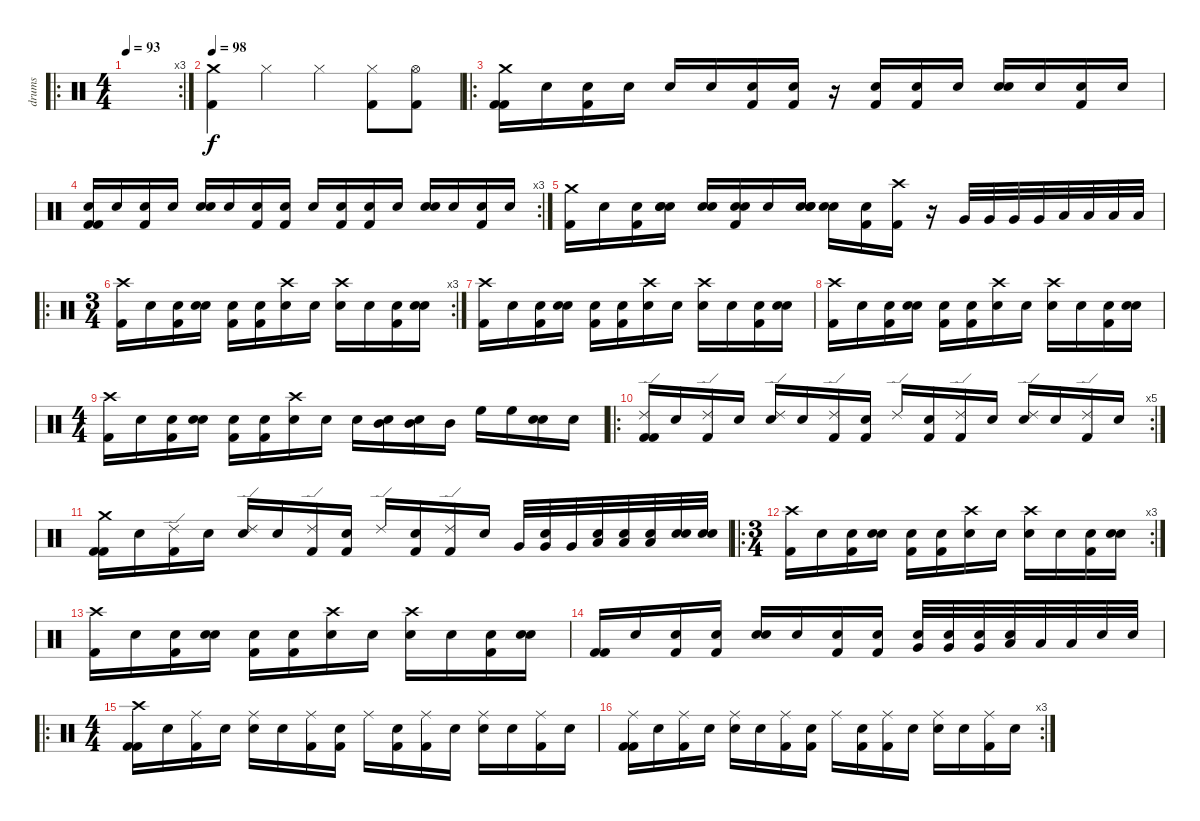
\track ("drums" "drums") {instrument percussion}
\staff {score}
\articulation defaults
\ro
\rc 3
\ts (4 4)
\tempo 93
\clef neutral
\ks c
|
\tempo 93
\tempo 98
("Crash medium (hit)" "Kick (hit) 2").4 "Hi-Hat (closed)".4 "Hi-Hat (closed)".4 ("Hi-Hat (closed)" "Kick (hit) 2").8 ("Hi-Hat (open)" "Kick (hit) 2").8 |
\ro
("Crash medium (hit)" "Kick (hit) 2" "Kick (hit) 2").16 "Snare (hit)".16 ("Snare (hit)" "Kick (hit) 2").16 "Snare (hit)".16 "Snare (hit) 2".16 "Snare (hit)".16 ("Snare (hit)" "Kick (hit) 2").16 ("Snare (hit)" "Kick (hit) 2").16 r.16 ("Snare (hit)" "Kick (hit) 2").16 ("Snare (hit)" "Kick (hit) 2").16 "Snare (hit)".16 ("Snare (hit)" "Snare (hit) 2").16 "Snare (hit)".16 ("Snare (hit)" "Kick (hit) 2").16 "Snare (hit)".16 |
\rc 3
("Snare (hit)" "Kick (hit) 2" "Kick (hit) 2").16 "Snare (hit)".16 ("Snare (hit)" "Kick (hit) 2").16 "Snare (hit)".16 ("Snare (hit)" "Snare (hit) 2").16 "Snare (hit)".16 ("Snare (hit)" "Kick (hit) 2").16 ("Snare (hit)" "Kick (hit) 2").16 "Snare (hit)".16 ("Snare (hit)" "Kick (hit) 2").16 ("Snare (hit)" "Kick (hit) 2").16 "Snare (hit)".16 ("Snare (hit)" "Snare (hit) 2").16 "Snare (hit)".16 ("Snare (hit)" "Kick (hit) 2").16 "Snare (hit)".16 |
("Crash medium (hit)" "Kick (hit) 2").16 "Snare (hit)".16 ("Snare (hit)" "Kick (hit) 2").16 ("Snare (hit)" "Snare (hit)" "Snare (hit)").16 ("Snare (hit)" "Snare (hit) 2").16 ("Snare (hit)" "Snare (hit)" "Kick (hit) 2").16 "Snare (hit)".16 ("Snare (hit)" "Snare (hit)" "Snare (hit)").16 ("Snare (hit)" "Snare (hit)").16 ("Snare (hit) 2" "Kick (hit) 2").16 ("Crash high (hit)" "Kick (hit) 2").16 r.16 "Very Low Tom (hit)".32 "Very Low Tom (hit)".32 "Very Low Tom (hit)".32 "Very Low Tom (hit)".32 "Low Floor Tom (hit)".32 "Low Floor Tom (hit)".32 "Low Floor Tom (hit)".32 "Low Floor Tom (hit)".32 |
\ro
\rc 3
\ts (3 4)
("Crash high (hit)" "Kick (hit) 2").16 "Snare (hit)".16 ("Snare (hit)" "Kick (hit) 2").16 ("Snare (hit)" "Snare (hit) 2").16 ("Snare (hit)" "Kick (hit) 2").16 ("Snare (hit)" "Kick (hit) 2").16 ("Crash high (hit)" "Snare (hit) 2").16 "Snare (hit)".16 ("Crash high (hit)" "Snare (hit) 2").16 "Snare (hit)".16 ("Snare (hit)" "Kick (hit) 2").16 ("Snare (hit)" "Snare (hit) 2").16 |
("Crash high (hit)" "Kick (hit) 2").16 "Snare (hit)".16 ("Snare (hit)" "Kick (hit) 2").16 ("Snare (hit)" "Snare (hit) 2").16 ("Snare (hit)" "Kick (hit) 2").16 ("Snare (hit)" "Kick (hit) 2").16 ("Crash high (hit)" "Snare (hit) 2").16 "Snare (hit)".16 ("Crash high (hit)" "Snare (hit) 2").16 "Snare (hit)".16 ("Snare (hit)" "Kick (hit) 2").16 ("Snare (hit)" "Snare (hit) 2").16 |
("Crash high (hit)" "Kick (hit) 2").16 "Snare (hit)".16 ("Snare (hit)" "Kick (hit) 2").16 ("Snare (hit)" "Snare (hit) 2").16 ("Snare (hit)" "Kick (hit) 2").16 ("Snare (hit)" "Kick (hit) 2").16 ("Crash high (hit)" "Snare (hit) 2").16 "Snare (hit)".16 ("Crash high (hit)" "Snare (hit) 2").16 "Snare (hit)".16 ("Snare (hit)" "Kick (hit) 2").16 ("Snare (hit)" "Snare (hit) 2").16 |
\ts (4 4)
("Crash high (hit)" "Kick (hit) 2").16 "Snare (hit)".16 ("Snare (hit)" "Kick (hit) 2").16 ("Snare (hit)" "Snare (hit) 2").16 ("Snare (hit)" "Kick (hit) 2").16 ("Snare (hit)" "Kick (hit) 2").16 ("Crash high (hit)" "Snare (hit) 2").16 "Snare (hit)".16 "Snare (hit) 2".16 ("Snare (hit)" "Mid Tom (hit)").16 ("Snare (hit)" "Mid Tom (hit)").16 "Mid Tom (hit)".16 "High Floor Tom (hit)".16 "High Floor Tom (hit)".16 ("Snare (hit)" "Snare (hit) 2").16 "Snare (hit) 2".16 |
\ro
\rc 5
("Ride (edge) 2" "Kick (hit) 2" "Kick (hit) 2").16 "Snare (hit)".16 ("Ride (edge) 2" "Kick (hit) 2").16 "Snare (hit)".16 ("Ride (edge) 2" "Snare (hit) 2").16 "Snare (hit)".16 ("Ride (edge) 2" "Kick (hit) 2").16 ("Snare (hit)" "Kick (hit) 2").16 "Ride (edge) 2".16 ("Snare (hit)" "Kick (hit) 2").16 ("Ride (edge) 2" "Kick (hit) 2").16 "Snare (hit)".16 ("Ride (edge) 2" "Snare (hit) 2").16 "Snare (hit)".16 ("Ride (edge) 2" "Kick (hit) 2").16 "Snare (hit)".16 |
("Crash medium (hit)" "Kick (hit) 2" "Kick (hit) 2").16 "Snare (hit)".16 ("Ride (edge) 2" "Kick (hit) 2").16 "Snare (hit)".16 ("Ride (edge) 2" "Snare (hit) 2").16 "Snare (hit)".16 ("Ride (edge) 2" "Kick (hit) 2").16 ("Snare (hit)" "Kick (hit) 2").16 "Ride (edge) 2".16 ("Snare (hit)" "Kick (hit) 2").16 ("Ride (edge) 2" "Kick (hit) 2").16 "Snare (hit)".16 "Very Low Tom (hit)".32 ("Snare (hit)" "Very Low Tom (hit)").32 "Very Low Tom (hit)".32 ("Snare (hit)" "Low Floor Tom (hit)").32 ("Snare (hit)" "Low Floor Tom (hit)").32 ("Snare (hit)" "Low Floor Tom (hit)").32 ("Snare (hit)" "Snare (hit) 2").32 ("Snare (hit)" "Snare (hit) 2").32 |
\ro
\rc 3
\ts (3 4)
("Crash high (hit)" "Kick (hit) 2").16 "Snare (hit)".16 ("Snare (hit)" "Kick (hit) 2").16 ("Snare (hit)" "Snare (hit) 2").16 ("Snare (hit)" "Kick (hit) 2").16 ("Snare (hit)" "Kick (hit) 2").16 ("Crash high (hit)" "Snare (hit) 2").16 "Snare (hit)".16 ("Crash high (hit)" "Snare (hit) 2").16 "Snare (hit)".16 ("Snare (hit)" "Kick (hit) 2").16 ("Snare (hit)" "Snare (hit) 2").16 |
("Crash high (hit)" "Kick (hit) 2").16 "Snare (hit)".16 ("Snare (hit)" "Kick (hit) 2").16 ("Snare (hit)" "Snare (hit) 2").16 ("Snare (hit)" "Kick (hit) 2").16 ("Snare (hit)" "Kick (hit) 2").16 ("Crash high (hit)" "Snare (hit) 2").16 "Snare (hit)".16 ("Crash high (hit)" "Snare (hit) 2").16 "Snare (hit)".16 ("Snare (hit)" "Kick (hit) 2").16 ("Snare (hit)" "Snare (hit) 2").16 |
("Kick (hit) 2" "Kick (hit) 2").16 "Snare (hit)".16 ("Snare (hit)" "Kick (hit) 2").16 ("Snare (hit)" "Kick (hit) 2").16 ("Snare (hit)" "Snare (hit)").16 "Snare (hit)".16 ("Snare (hit)" "Kick (hit) 2").16 ("Snare (hit)" "Kick (hit) 2").16 ("Snare (hit)" "Very Low Tom (hit)").32 ("Snare (hit)" "Very Low Tom (hit)").32 ("Snare (hit)" "Very Low Tom (hit)").32 ("Snare (hit)" "Low Floor Tom (hit)").32 "Low Floor Tom (hit)".32 "Low Floor Tom (hit)".32 "Snare (hit) 2".32 "Snare (hit) 2".32 |
\ro
\ts (4 4)
("Crash high (hit)" "Kick (hit) 2" "Kick (hit) 2").16 "Snare (hit)".16 ("Ride (middle)" "Kick (hit) 2").16 "Snare (hit)".16 ("Ride (middle)" "Snare (hit) 2").16 "Snare (hit)".16 ("Ride (middle)" "Kick (hit) 2").16 ("Snare (hit)" "Kick (hit) 2").16 "Ride (middle)".16 ("Snare (hit)" "Kick (hit) 2").16 ("Ride (middle)" "Kick (hit) 2").16 "Snare (hit)".16 ("Ride (middle)" "Snare (hit) 2").16 "Snare (hit)".16 ("Ride (middle)" "Kick (hit) 2").16 "Snare (hit)".16 |
\rc 3
("Ride (middle)" "Kick (hit) 2" "Kick (hit) 2").16 "Snare (hit)".16 ("Ride (middle)" "Kick (hit) 2").16 "Snare (hit)".16 ("Ride (middle)" "Snare (hit) 2").16 "Snare (hit)".16 ("Ride (middle)" "Kick (hit) 2").16 ("Snare (hit)" "Kick (hit) 2").16 "Ride (middle)".16 ("Snare (hit)" "Kick (hit) 2").16 ("Ride (middle)" "Kick (hit) 2").16 "Snare (hit)".16 ("Ride (middle)" "Snare (hit) 2").16 "Snare (hit)".16 ("Ride (middle)" "Kick (hit) 2").16 "Snare (hit)".16
